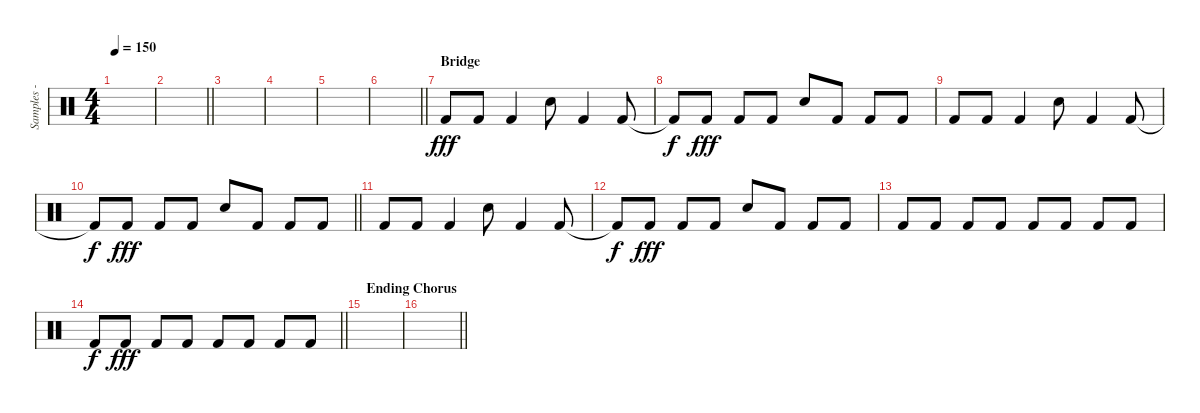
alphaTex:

\track ("Samples - Joe Hahn" "Samples - ") {instrument percussion}
\staff {score}
\articulation defaults
\ts (4 4)
\tempo 150
\clef neutral
\ks c
|
\barLineRight lightlight
|
|
|
|
\barLineRight lightlight
|
\section ("" "Bridge")
"Kick (hit) 2".8{dy fff volume 8} "Kick (hit) 2".8 "Kick (hit) 2".4 "Snare (hit) 2".8 "Kick (hit) 2".4 "Kick (hit) 2".8 |
"Kick (hit) 2"{t}.8{dy f} "Kick (hit) 2".8{dy fff} "Kick (hit) 2".8 "Kick (hit) 2".8 "Snare (hit) 2".8 "Kick (hit) 2".8 "Kick (hit) 2".8 "Kick (hit) 2".8 |
"Kick (hit) 2".8 "Kick (hit) 2".8 "Kick (hit) 2".4 "Snare (hit) 2".8 "Kick (hit) 2".4 "Kick (hit) 2".8 |
\barLineRight lightlight "Kick (hit) 2"{t}.8{dy f} "Kick (hit) 2".8{dy fff} "Kick (hit) 2".8 "Kick (hit) 2".8 "Snare (hit) 2".8 "Kick (hit) 2".8 "Kick (hit) 2".8 "Kick (hit) 2".8
|
"Kick (hit) 2".8 "Kick (hit) 2".8 "Kick (hit) 2".4 "Snare (hit) 2".8 "Kick (hit) 2".4 "Kick (hit) 2".8 |
"Kick (hit) 2"{t}.8{dy f} "Kick (hit) 2".8{dy fff} "Kick (hit) 2".8 "Kick (hit) 2".8 "Snare (hit) 2".8 "Kick (hit) 2".8 "Kick (hit) 2".8 "Kick (hit) 2".8 |
"Kick (hit) 2".8 "Kick (hit) 2".8 "Kick (hit) 2".8 "Kick (hit) 2".8 "Kick (hit) 2".8 "Kick (hit) 2".8 "Kick (hit) 2".8 "Kick (hit) 2".8 |
\barLineRight lightlight "Kick (hit) 2".8{dy f} "Kick (hit) 2".8{dy fff} "Kick (hit) 2".8 "Kick (hit) 2".8 "Kick (hit) 2".8 "Kick (hit) 2".8 "Kick (hit) 2".8 "Kick (hit) 2".8
|
\section ("" "Ending Chorus")
|
\barLineRight lightlight
